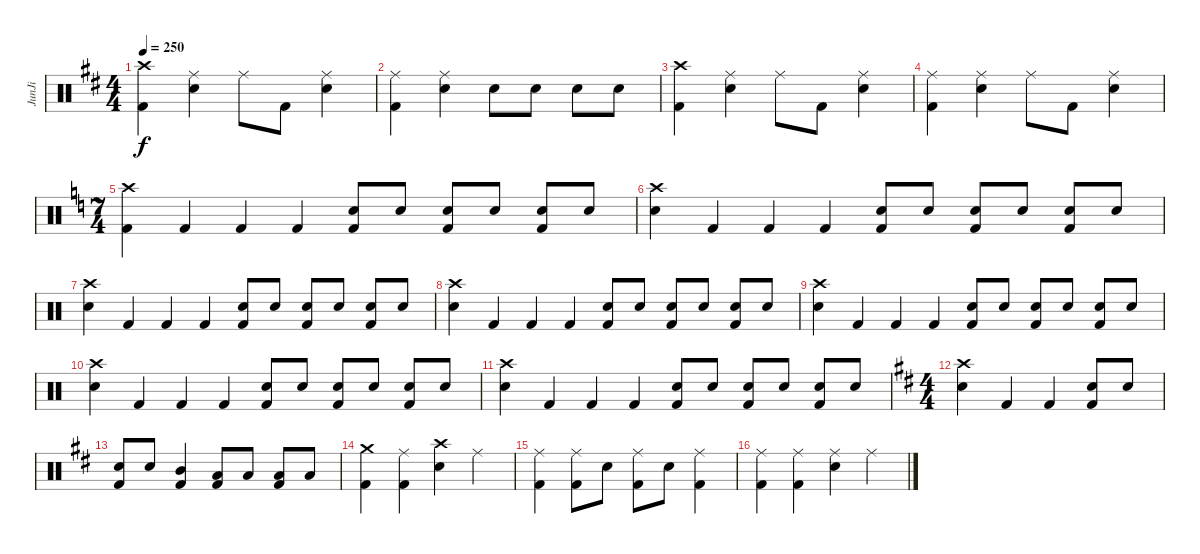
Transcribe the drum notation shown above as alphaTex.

\track ("JunJi" "JunJi") {instrument percussion}
\staff {score}
\articulation defaults
\ts (4 4)
\tempo 250
\clef neutral
\ks d
("Crash high (hit)" "Kick (hit) 2").4{dy f} ("Ride (middle)" "Snare (hit) 2").4 "Ride (middle)".8 "Kick (hit) 2".8 ("Ride (middle)" "Snare (hit) 2").4 |
("Ride (middle)" "Kick (hit) 2").4 ("Ride (middle)" "Snare (hit) 2").4 "Snare (hit) 2".8 "Snare (hit) 2".8 "Snare (hit) 2".8 "Snare (hit) 2".8 |
("Crash high (hit)" "Kick (hit) 2").4 ("Ride (middle)" "Snare (hit) 2").4 "Ride (middle)".8 "Kick (hit) 2".8 ("Ride (middle)" "Snare (hit) 2").4 |
("Ride (middle)" "Kick (hit) 2").4 ("Ride (middle)" "Snare (hit) 2").4 "Ride (middle)".8 "Kick (hit) 2".8 ("Ride (middle)" "Snare (hit) 2").4 |
\ts (7 4)
\ks c
("Crash high (hit)" "Kick (hit) 2").4 "Kick (hit) 2".4 "Kick (hit) 2".4 "Kick (hit) 2".4 ("Snare (hit) 2" "Kick (hit) 2").8 "Snare (hit) 2".8 ("Snare (hit) 2" "Kick (hit) 2").8 "Snare (hit) 2".8 ("Snare (hit) 2" "Kick (hit) 2").8 "Snare (hit) 2".8 |
("Crash high (hit)" "Snare (hit) 2").4 "Kick (hit) 2".4 "Kick (hit) 2".4 "Kick (hit) 2".4 ("Snare (hit) 2" "Kick (hit) 2").8 "Snare (hit) 2".8 ("Snare (hit) 2" "Kick (hit) 2").8 "Snare (hit) 2".8 ("Snare (hit) 2" "Kick (hit) 2").8 "Snare (hit) 2".8 |
("Crash high (hit)" "Snare (hit) 2").4 "Kick (hit) 2".4 "Kick (hit) 2".4 "Kick (hit) 2".4 ("Snare (hit) 2" "Kick (hit) 2").8 "Snare (hit) 2".8 ("Snare (hit) 2" "Kick (hit) 2").8 "Snare (hit) 2".8 ("Snare (hit) 2" "Kick (hit) 2").8 "Snare (hit) 2".8 |
("Crash high (hit)" "Snare (hit) 2").4 "Kick (hit) 2".4 "Kick (hit) 2".4 "Kick (hit) 2".4 ("Snare (hit) 2" "Kick (hit) 2").8 "Snare (hit) 2".8 ("Snare (hit) 2" "Kick (hit) 2").8 "Snare (hit) 2".8 ("Snare (hit) 2" "Kick (hit) 2").8 "Snare (hit) 2".8 |
("Crash high (hit)" "Snare (hit) 2").4 "Kick (hit) 2".4 "Kick (hit) 2".4 "Kick (hit) 2".4 ("Snare (hit) 2" "Kick (hit) 2").8 "Snare (hit) 2".8 ("Snare (hit) 2" "Kick (hit) 2").8 "Snare (hit) 2".8 ("Snare (hit) 2" "Kick (hit) 2").8 "Snare (hit) 2".8 |
("Crash high (hit)" "Snare (hit) 2").4 "Kick (hit) 2".4 "Kick (hit) 2".4 "Kick (hit) 2".4 ("Snare (hit) 2" "Kick (hit) 2").8 "Snare (hit) 2".8 ("Snare (hit) 2" "Kick (hit) 2").8 "Snare (hit) 2".8 ("Snare (hit) 2" "Kick (hit) 2").8 "Snare (hit) 2".8 |
("Crash high (hit)" "Snare (hit) 2").4 "Kick (hit) 2".4 "Kick (hit) 2".4 "Kick (hit) 2".4 ("Snare (hit) 2" "Kick (hit) 2").8 "Snare (hit) 2".8 ("Snare (hit) 2" "Kick (hit) 2").8 "Snare (hit) 2".8 ("Snare (hit) 2" "Kick (hit) 2").8 "Snare (hit) 2".8 |
\ts (4 4)
\ks d
("Crash high (hit)" "Snare (hit) 2").4 "Kick (hit) 2".4 "Kick (hit) 2".4 ("Snare (hit) 2" "Kick (hit) 2").8 "Snare (hit) 2".8 |
("Snare (hit) 2" "Kick (hit) 2").8 "Snare (hit) 2".8 ("Mid Tom (hit)" "Kick (hit) 2").4 ("Low Tom (hit)" "Kick (hit) 2").8 "Low Tom (hit)".8 ("Low Tom (hit)" "Kick (hit) 2").8 "Low Tom (hit)".8 |
("Crash medium (hit)" "Kick (hit) 2").4 ("Ride (middle)" "Kick (hit) 2").4 ("Crash high (hit)" "Snare (hit) 2").4 "Ride (middle)".4 |
("Ride (middle)" "Kick (hit) 2").4 ("Ride (middle)" "Kick (hit) 2").8 "Snare (hit) 2".8 ("Ride (middle)" "Kick (hit) 2").8 "Snare (hit) 2".8 ("Ride (middle)" "Kick (hit) 2").4 |
("Ride (middle)" "Kick (hit) 2").4 ("Ride (middle)" "Kick (hit) 2").4 ("Ride (middle)" "Snare (hit) 2").4 "Ride (middle)".4
